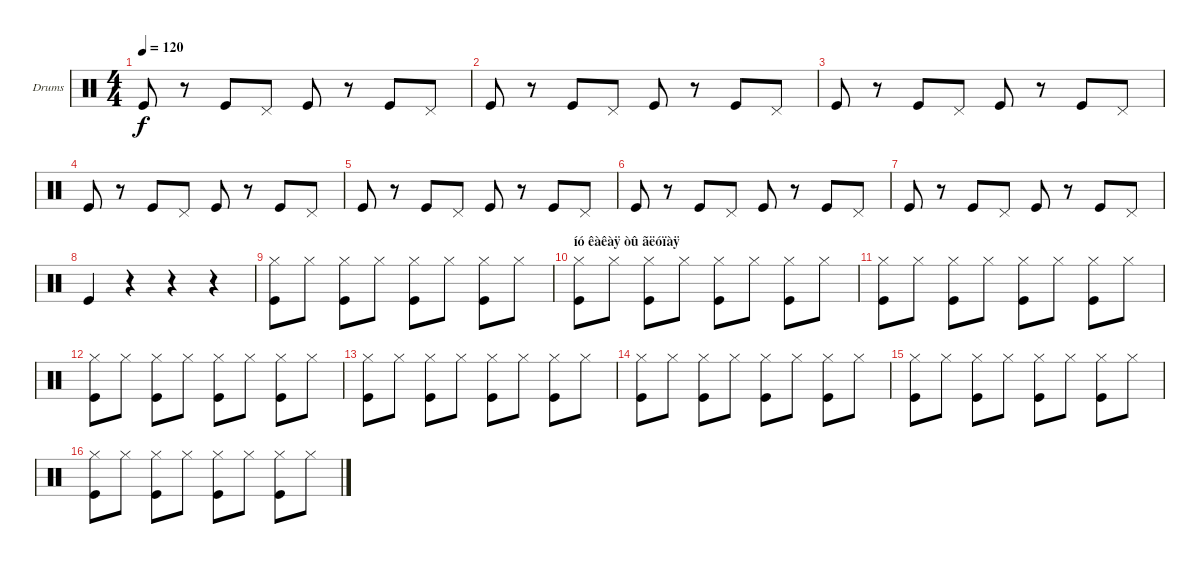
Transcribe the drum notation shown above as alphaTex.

\bracketExtendMode groupsimilarinstruments
\firstSystemTrackNameOrientation horizontal
\otherSystemsTrackNameOrientation horizontal
\track ("Drumkit" "Drums") {instrument percussion}
\staff {score}
\articulation defaults
\ts (4 4)
\tempo 120
\clef neutral
\ks c "Kick (hit)".8{dy f}
r.8 "Kick (hit)".8 "Pedal Hi-Hat (hit)".8 "Kick (hit)".8 r.8 "Kick (hit)".8 "Pedal Hi-Hat (hit)".8 |
"Kick (hit)".8 r.8 "Kick (hit)".8 "Pedal Hi-Hat (hit)".8 "Kick (hit)".8 r.8 "Kick (hit)".8 "Pedal Hi-Hat (hit)".8 |
"Kick (hit)".8 r.8 "Kick (hit)".8 "Pedal Hi-Hat (hit)".8 "Kick (hit)".8 r.8 "Kick (hit)".8 "Pedal Hi-Hat (hit)".8 |
"Kick (hit)".8 r.8 "Kick (hit)".8 "Pedal Hi-Hat (hit)".8 "Kick (hit)".8 r.8 "Kick (hit)".8 "Pedal Hi-Hat (hit)".8 |
"Kick (hit)".8 r.8 "Kick (hit)".8 "Pedal Hi-Hat (hit)".8 "Kick (hit)".8 r.8 "Kick (hit)".8 "Pedal Hi-Hat (hit)".8 |
"Kick (hit)".8 r.8 "Kick (hit)".8 "Pedal Hi-Hat (hit)".8 "Kick (hit)".8 r.8 "Kick (hit)".8 "Pedal Hi-Hat (hit)".8 |
"Kick (hit)".8 r.8 "Kick (hit)".8 "Pedal Hi-Hat (hit)".8 "Kick (hit)".8 r.8 "Kick (hit)".8 "Pedal Hi-Hat (hit)".8 |
"Kick (hit)".4 r.4 r.4 r.4 |
("Hi-Hat (closed)" "Kick (hit)").8 "Hi-Hat (closed)".8 ("Hi-Hat (closed)" "Kick (hit)").8 "Hi-Hat (closed)".8 ("Hi-Hat (closed)" "Kick (hit)").8 "Hi-Hat (closed)".8 ("Hi-Hat (closed)" "Kick (hit)").8 "Hi-Hat (closed)".8 |
\section ("" "íó êàêàÿ òû ãëóïàÿ")
("Hi-Hat (closed)" "Kick (hit)").8 "Hi-Hat (closed)".8 ("Hi-Hat (closed)" "Kick (hit)").8 "Hi-Hat (closed)".8 ("Hi-Hat (closed)" "Kick (hit)").8 "Hi-Hat (closed)".8 ("Hi-Hat (closed)" "Kick (hit)").8 "Hi-Hat (closed)".8 |
("Hi-Hat (closed)" "Kick (hit)").8 "Hi-Hat (closed)".8 ("Hi-Hat (closed)" "Kick (hit)").8 "Hi-Hat (closed)".8 ("Hi-Hat (closed)" "Kick (hit)").8 "Hi-Hat (closed)".8 ("Hi-Hat (closed)" "Kick (hit)").8 "Hi-Hat (closed)".8 |
("Hi-Hat (closed)" "Kick (hit)").8 "Hi-Hat (closed)".8 ("Hi-Hat (closed)" "Kick (hit)").8 "Hi-Hat (closed)".8 ("Hi-Hat (closed)" "Kick (hit)").8 "Hi-Hat (closed)".8 ("Hi-Hat (closed)" "Kick (hit)").8 "Hi-Hat (closed)".8 |
("Hi-Hat (closed)" "Kick (hit)").8 "Hi-Hat (closed)".8 ("Hi-Hat (closed)" "Kick (hit)").8 "Hi-Hat (closed)".8 ("Hi-Hat (closed)" "Kick (hit)").8 "Hi-Hat (closed)".8 ("Hi-Hat (closed)" "Kick (hit)").8 "Hi-Hat (closed)".8 |
("Hi-Hat (closed)" "Kick (hit)").8 "Hi-Hat (closed)".8 ("Hi-Hat (closed)" "Kick (hit)").8 "Hi-Hat (closed)".8 ("Hi-Hat (closed)" "Kick (hit)").8 "Hi-Hat (closed)".8 ("Hi-Hat (closed)" "Kick (hit)").8 "Hi-Hat (closed)".8 |
("Hi-Hat (closed)" "Kick (hit)").8 "Hi-Hat (closed)".8 ("Hi-Hat (closed)" "Kick (hit)").8 "Hi-Hat (closed)".8 ("Hi-Hat (closed)" "Kick (hit)").8 "Hi-Hat (closed)".8 ("Hi-Hat (closed)" "Kick (hit)").8 "Hi-Hat (closed)".8 |
("Hi-Hat (closed)" "Kick (hit)").8 "Hi-Hat (closed)".8 ("Hi-Hat (closed)" "Kick (hit)").8 "Hi-Hat (closed)".8 ("Hi-Hat (closed)" "Kick (hit)").8 "Hi-Hat (closed)".8 ("Hi-Hat (closed)" "Kick (hit)").8 "Hi-Hat (closed)".8
